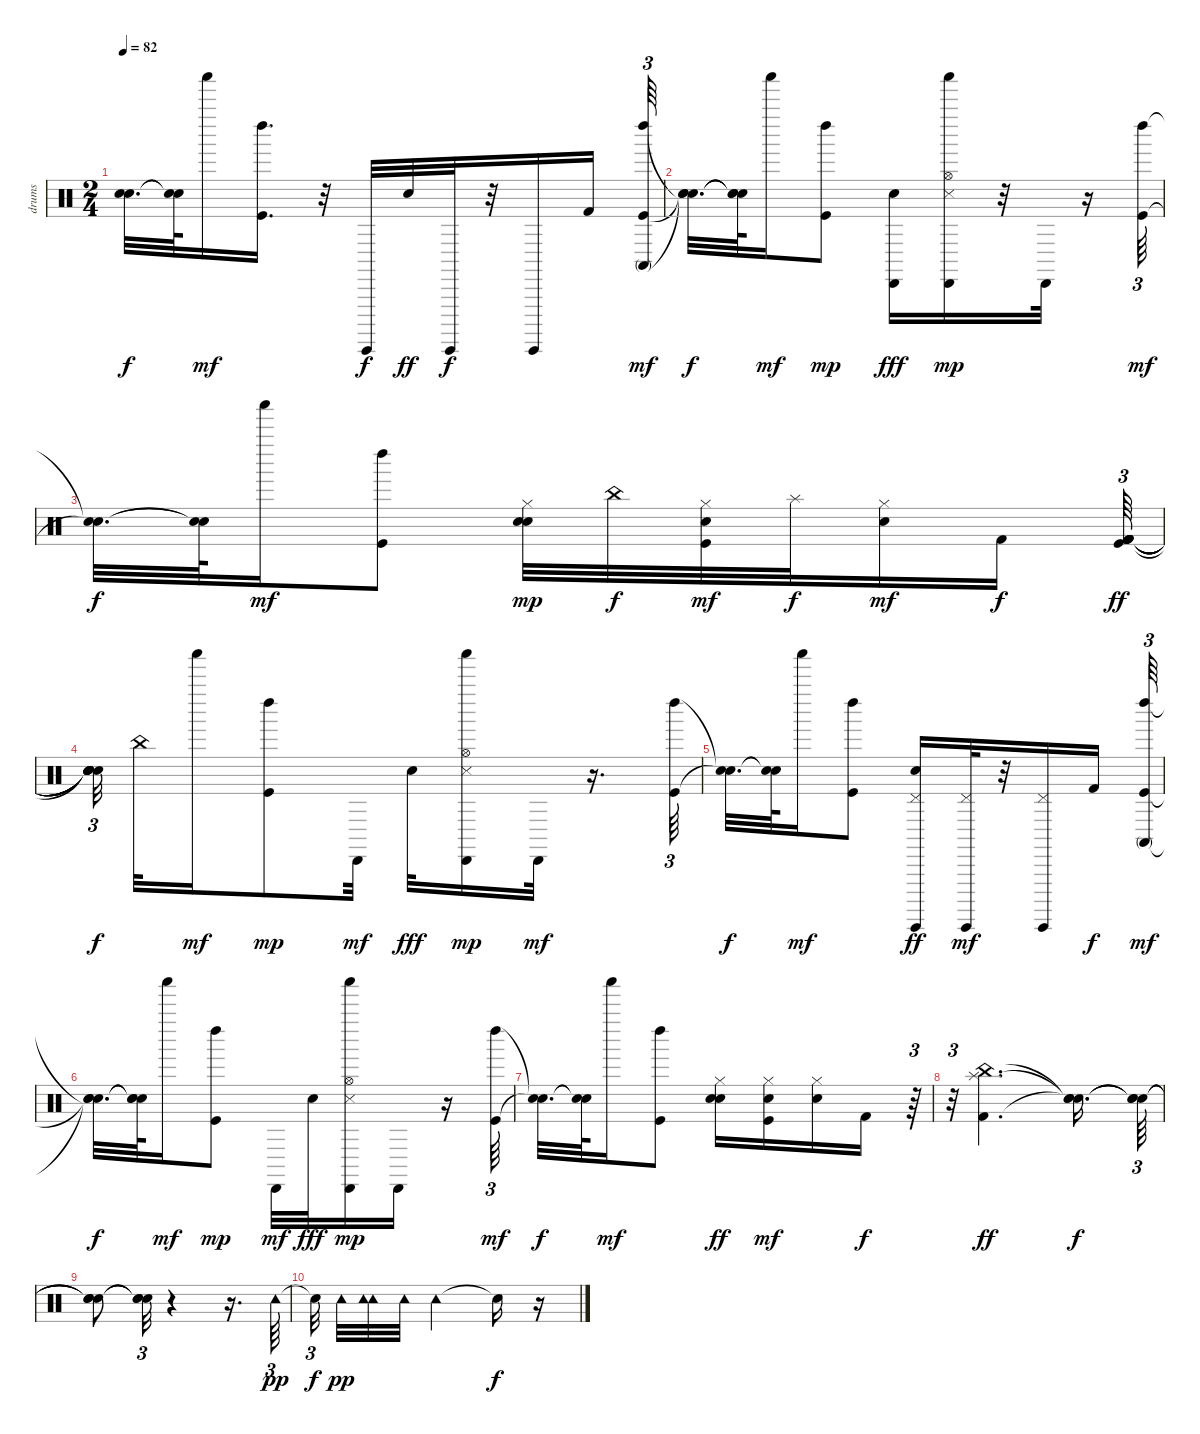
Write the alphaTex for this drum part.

\track ("drums" "drums") {instrument percussion}
\staff {score}
\articulation defaults
\ts (2 4)
\tempo 82
\clef neutral
\ks c
("Snare (hit)"{t} "Snare (hit)"{t}).32{d dy f} ("Snare (hit)"{t} "Snare (hit)"{t}).64 "Shaker (hit)".16{dy mf} ("Kick (hit)" "Left Maraca (hit)").16{d} r.32 "Guiro (hit)".32{dy f} "Electric Snare (hit)".32{dy ff} "Guiro (hit)".32{dy f} r.32 "Guiro (hit)".16 "Kick (hit) 2".16 ("Kick (hit)" "Left Maraca (hit)" "Conga high (mute)").64{tu (3 2) dy mf} |
("Snare (hit)"{t} "Snare (hit)"{t} "Snare (hit)"{t}).32{d dy f} ("Snare (hit)"{t} "Snare (hit)"{t} "Snare (hit)"{t}).64 "Shaker (hit)".16{dy mf} ("Kick (hit)" "Left Maraca (hit)").8{dy mp} ("Cabasa (hit)" "Electric Snare (hit)").16{dy fff} ("Snare (side stick) 3" "Shaker (hit)" "Hi-Hat (open)" "Cabasa (hit)").16{dy mp} r.32 "Cabasa (hit)".32 r.16 ("Kick (hit)" "Left Maraca (hit)").64{tu (3 2) dy mf} |
("Snare (hit)"{t} "Snare (hit)"{t}).32{d dy f} ("Snare (hit)"{t} "Snare (hit)"{t}).64 "Shaker (hit)".16{dy mf} ("Kick (hit)" "Left Maraca (hit)").8 ("Electric Snare (hit)" "Hand Clap (hit)" "Hi-Hat (closed)").32{dy mp} "China (hit)".32{dy f} ("Kick (hit)" "Hi-Hat (closed)" "Hand Clap (hit)").32{dy mf} "Splash (hit)".32{dy f} ("Hi-Hat (closed)" "Hand Clap (hit)").16{dy mf} "Kick (hit) 2".16{dy f} ("Kick (hit) 2" "Kick (hit) 2" "Kick (hit) 2" "Kick (hit) 2" "Kick (hit) 2" "Kick (hit)").64{tu (3 2) dy ff} |
("Snare (hit)"{t} "Snare (hit)"{t} "Snare (hit)"{t} "Snare (hit)"{t} "Snare (hit)"{t} "Snare (hit)"{t}).32{tu (3 2) dy f beam splitsecondary} "China (hit)".32 "Shaker (hit)".16{dy mf} ("Kick (hit)" "Left Maraca (hit)").8{dy mp} "Cabasa (hit)".32{dy mf} "Electric Snare (hit)".32{dy fff} ("Cabasa (hit)" "Snare (side stick) 3" "Shaker (hit)" "Hi-Hat (open)").16{dy mp} "Cabasa (hit)".32{dy mf} r.16{d} ("Kick (hit)" "Left Maraca (hit)").64{tu (3 2)} |
("Snare (hit)"{t} "Snare (hit)"{t}).32{d dy f} ("Snare (hit)"{t} "Snare (hit)"{t}).64 "Shaker (hit)".16{dy mf} ("Kick (hit)" "Left Maraca (hit)").8 ("Pedal Hi-Hat (hit)" "Guiro (hit)" "Electric Snare (hit)").16{dy ff} ("Guiro (hit)" "Pedal Hi-Hat (hit)").32{dy mf} r.32 ("Guiro (hit)" "Pedal Hi-Hat (hit)").16 "Kick (hit) 2".16{dy f} ("Kick (hit)" "Left Maraca (hit)" "Conga high (mute)").64{tu (3 2) dy mf} |
("Snare (hit)"{t} "Snare (hit)"{t} "Snare (hit)"{t}).32{d dy f} ("Snare (hit)"{t} "Snare (hit)"{t} "Snare (hit)"{t}).64 "Shaker (hit)".16{dy mf} ("Kick (hit)" "Left Maraca (hit)").8{dy mp} "Cabasa (hit)".32{dy mf} "Electric Snare (hit)".32{dy fff} ("Cabasa (hit)" "Snare (side stick) 3" "Shaker (hit)" "Hi-Hat (open)").16{dy mp} "Cabasa (hit)".16 r.16 ("Kick (hit)" "Left Maraca (hit)").64{tu (3 2) dy mf} |
("Snare (hit)"{t} "Snare (hit)"{t}).32{d dy f} ("Snare (hit)"{t} "Snare (hit)"{t}).64 "Shaker (hit)".16{dy mf} ("Kick (hit)" "Left Maraca (hit)").8 ("Hand Clap (hit)" "Hi-Hat (closed)" "Electric Snare (hit)").16{dy ff} ("Kick (hit)" "Hi-Hat (closed)" "Hand Clap (hit)").16{dy mf} ("Hi-Hat (closed)" "Hand Clap (hit)").16 "Kick (hit) 2".16{dy f} r.64{tu (3 2)} |
r.32{tu (3 2)} ("Kick (hit) 2" "Splash (hit)" "China (hit)").4{d dy ff} ("Snare (hit)"{t} "Snare (hit)"{t} "Snare (hit)"{t}).16{d dy f} ("Snare (hit)"{t} "Snare (hit)"{t} "Snare (hit)"{t}).64{tu (3 2)} |
("Snare (hit)"{t} "Snare (hit)"{t} "Snare (hit)"{t}).8 ("Snare (hit)"{t} "Snare (hit)"{t} "Snare (hit)"{t}).32{tu (3 2)} r.4 r.16{d} "Tambourine (hit)".64{tu (3 2) dy pp} |
"Snare (hit)"{t}.32{tu (3 2) dy f beam splitsecondary} "Tambourine (hit)".32{dy pp} ("Tambourine (hit)" "Tambourine (hit)").32 "Tambourine (hit)".32 "Tambourine (hit)".4 "Snare (hit)"{t}.16{dy f} r.16
